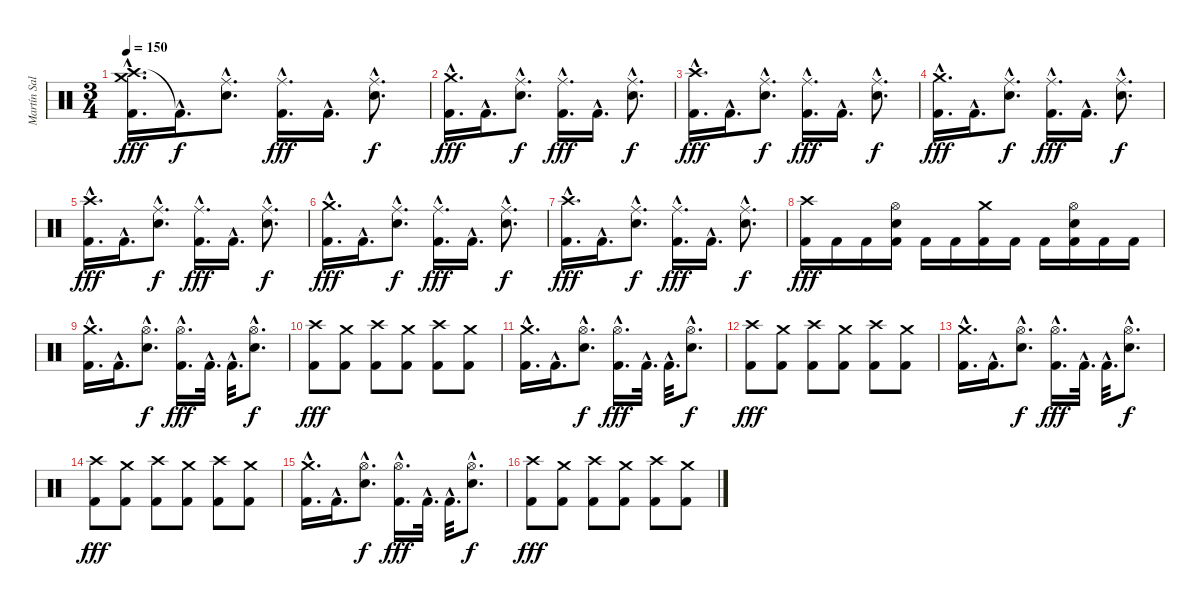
\track ("Martín Salariato" "Martín Sal") {instrument percussion}
\staff {score}
\articulation defaults
\ts (3 4)
\tempo 150
\clef neutral
\ks c
("Crash high (hit)"{hac} "Crash medium (hit)"{hac} "Kick (hit) 2"{hac}).16{d dy fff} "Kick (hit) 2"{hac t}.16{d dy f} ("Ride (middle)"{hac} "Snare (hit) 2"{hac}).8{d} ("Ride (middle)"{hac} "Kick (hit) 2"{hac}).16{d dy fff} "Kick (hit) 2"{hac}.16{d} ("Ride (middle)"{hac} "Snare (hit) 2"{hac}).8{d dy f} |
("Crash medium (hit)"{hac} "Kick (hit) 2"{hac}).16{d dy fff} "Kick (hit) 2"{hac}.16{d} ("Ride (middle)"{hac} "Snare (hit) 2"{hac}).8{d dy f} ("Ride (middle)"{hac} "Kick (hit) 2"{hac}).16{d dy fff} "Kick (hit) 2"{hac}.16{d} ("Ride (middle)"{hac} "Snare (hit) 2"{hac}).8{d dy f} |
("Crash high (hit)"{hac} "Kick (hit) 2"{hac}).16{d dy fff} "Kick (hit) 2"{hac}.16{d} ("Ride (middle)"{hac} "Snare (hit) 2"{hac}).8{d dy f} ("Ride (middle)"{hac} "Kick (hit) 2"{hac}).16{d dy fff} "Kick (hit) 2"{hac}.16{d} ("Ride (middle)"{hac} "Snare (hit) 2"{hac}).8{d dy f} |
("Crash medium (hit)"{hac} "Kick (hit) 2"{hac}).16{d dy fff} "Kick (hit) 2"{hac}.16{d} ("Ride (middle)"{hac} "Snare (hit) 2"{hac}).8{d dy f} ("Ride (middle)"{hac} "Kick (hit) 2"{hac}).16{d dy fff} "Kick (hit) 2"{hac}.16{d} ("Ride (middle)"{hac} "Snare (hit) 2"{hac}).8{d dy f} |
("Crash high (hit)"{hac} "Kick (hit) 2"{hac}).16{d dy fff} "Kick (hit) 2"{hac}.16{d} ("Ride (middle)"{hac} "Snare (hit) 2"{hac}).8{d dy f} ("Ride (middle)"{hac} "Kick (hit) 2"{hac}).16{d dy fff} "Kick (hit) 2"{hac}.16{d} ("Ride (middle)"{hac} "Snare (hit) 2"{hac}).8{d dy f} |
("Crash medium (hit)"{hac} "Kick (hit) 2"{hac}).16{d dy fff} "Kick (hit) 2"{hac}.16{d} ("Ride (middle)"{hac} "Snare (hit) 2"{hac}).8{d dy f} ("Ride (middle)"{hac} "Kick (hit) 2"{hac}).16{d dy fff} "Kick (hit) 2"{hac}.16{d} ("Ride (middle)"{hac} "Snare (hit) 2"{hac}).8{d dy f} |
("Crash high (hit)"{hac} "Kick (hit) 2"{hac}).16{d dy fff} "Kick (hit) 2"{hac}.16{d} ("Ride (middle)"{hac} "Snare (hit) 2"{hac}).8{d dy f} ("Ride (middle)"{hac} "Kick (hit) 2"{hac}).16{d dy fff} "Kick (hit) 2"{hac}.16{d} ("Ride (middle)"{hac} "Snare (hit) 2"{hac}).8{d dy f} |
("Crash high (hit)" "Kick (hit) 2").16{dy fff} "Kick (hit) 2".16 "Kick (hit) 2".16 ("Hi-Hat (open)" "Snare (hit) 2" "Kick (hit) 2").16 "Kick (hit) 2".16 "Kick (hit) 2".16 ("Crash medium (hit)" "Kick (hit) 2").16 "Kick (hit) 2".16 "Kick (hit) 2".16 ("Hi-Hat (open)" "Snare (hit) 2" "Kick (hit) 2").16 "Kick (hit) 2".16 "Kick (hit) 2".16 |
("Crash medium (hit)"{hac} "Kick (hit) 2"{hac}).16{d} "Kick (hit) 2"{hac}.16{d} ("Hi-Hat (open)"{hac} "Snare (hit) 2"{hac}).8{d dy f} ("Hi-Hat (open)"{hac} "Kick (hit) 2"{hac}).16{d dy fff} "Kick (hit) 2"{hac}.32{d} "Kick (hit) 2"{hac}.32{d} ("Hi-Hat (open)"{hac} "Snare (hit) 2"{hac}).8{d dy f} |
("Crash high (hit)" "Kick (hit) 2").8{dy fff} ("Crash medium (hit)" "Kick (hit) 2").8 ("Crash high (hit)" "Kick (hit) 2").8 ("Crash medium (hit)" "Kick (hit) 2").8 ("Crash high (hit)" "Kick (hit) 2").8 ("Crash medium (hit)" "Kick (hit) 2").8 |
("Crash medium (hit)"{hac} "Kick (hit) 2"{hac}).16{d} "Kick (hit) 2"{hac}.16{d} ("Hi-Hat (open)"{hac} "Snare (hit) 2"{hac}).8{d dy f} ("Hi-Hat (open)"{hac} "Kick (hit) 2"{hac}).16{d dy fff} "Kick (hit) 2"{hac}.32{d} "Kick (hit) 2"{hac}.32{d} ("Hi-Hat (open)"{hac} "Snare (hit) 2"{hac}).8{d dy f} |
("Crash high (hit)" "Kick (hit) 2").8{dy fff} ("Crash medium (hit)" "Kick (hit) 2").8 ("Crash high (hit)" "Kick (hit) 2").8 ("Crash medium (hit)" "Kick (hit) 2").8 ("Crash high (hit)" "Kick (hit) 2").8 ("Crash medium (hit)" "Kick (hit) 2").8 |
("Crash medium (hit)"{hac} "Kick (hit) 2"{hac}).16{d} "Kick (hit) 2"{hac}.16{d} ("Hi-Hat (open)"{hac} "Snare (hit) 2"{hac}).8{d dy f} ("Hi-Hat (open)"{hac} "Kick (hit) 2"{hac}).16{d dy fff} "Kick (hit) 2"{hac}.32{d} "Kick (hit) 2"{hac}.32{d} ("Hi-Hat (open)"{hac} "Snare (hit) 2"{hac}).8{d dy f} |
("Crash high (hit)" "Kick (hit) 2").8{dy fff} ("Crash medium (hit)" "Kick (hit) 2").8 ("Crash high (hit)" "Kick (hit) 2").8 ("Crash medium (hit)" "Kick (hit) 2").8 ("Crash high (hit)" "Kick (hit) 2").8 ("Crash medium (hit)" "Kick (hit) 2").8 |
("Crash medium (hit)"{hac} "Kick (hit) 2"{hac}).16{d} "Kick (hit) 2"{hac}.16{d} ("Hi-Hat (open)"{hac} "Snare (hit) 2"{hac}).8{d dy f} ("Hi-Hat (open)"{hac} "Kick (hit) 2"{hac}).16{d dy fff} "Kick (hit) 2"{hac}.32{d} "Kick (hit) 2"{hac}.32{d} ("Hi-Hat (open)"{hac} "Snare (hit) 2"{hac}).8{d dy f} |
("Crash high (hit)" "Kick (hit) 2").8{dy fff} ("Crash medium (hit)" "Kick (hit) 2").8 ("Crash high (hit)" "Kick (hit) 2").8 ("Crash medium (hit)" "Kick (hit) 2").8 ("Crash high (hit)" "Kick (hit) 2").8 ("Crash medium (hit)" "Kick (hit) 2").8
